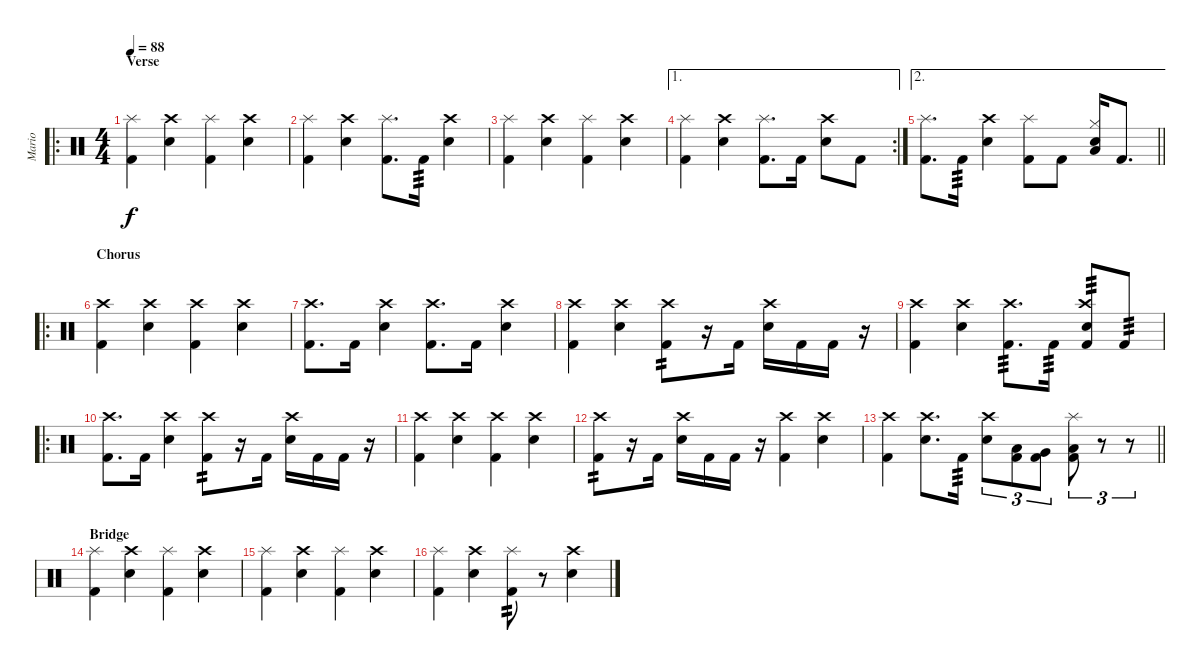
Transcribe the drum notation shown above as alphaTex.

\track ("Mario" "Mario") {instrument percussion}
\staff {score}
\articulation defaults
\ro
\ts (4 4)
\section ("" "Verse")
\tempo 88
\clef neutral
\ks c
("Splash (hit)" "Kick (hit) 2").4{dy f} ("Crash high (hit)" "Electric Snare (hit)").4 ("Splash (hit)" "Kick (hit) 2").4 ("Crash high (hit)" "Electric Snare (hit)").4 |
("Splash (hit)" "Kick (hit) 2").4 ("Crash high (hit)" "Electric Snare (hit)").4 ("Splash (hit)" "Kick (hit) 2").8{d} "Kick (hit) 2".16{tp 3} ("Crash high (hit)" "Electric Snare (hit)").4 |
("Splash (hit)" "Kick (hit) 2").4 ("Crash high (hit)" "Electric Snare (hit)").4 ("Splash (hit)" "Kick (hit) 2").4 ("Crash high (hit)" "Electric Snare (hit)").4 |
\ae 1
\rc 2
("Splash (hit)" "Kick (hit) 2").4 ("Crash high (hit)" "Electric Snare (hit)").4 ("Splash (hit)" "Kick (hit) 2").8{d} "Kick (hit) 2".16 ("Crash high (hit)" "Electric Snare (hit)").8 "Kick (hit) 2".8 |
\ae 2
\barLineRight lightlight
("Splash (hit)" "Kick (hit) 2").8{d} "Kick (hit) 2".16{tp 3} ("Crash high (hit)" "Electric Snare (hit)").4 ("Splash (hit)" "Kick (hit) 2").8 "Kick (hit) 2".8 ("Hi-Hat (closed)" "Low Floor Tom (hit)" "Electric Snare (hit)").16 "Kick (hit) 2".8{d} |
\ro
\section ("" "Chorus")
("Crash high (hit)" "Kick (hit) 2").4 ("Crash high (hit)" "Electric Snare (hit)").4 ("Crash high (hit)" "Kick (hit) 2").4 ("Crash high (hit)" "Electric Snare (hit)").4 |
("Crash high (hit)" "Kick (hit) 2").8{d} "Kick (hit) 2".16 ("Crash high (hit)" "Electric Snare (hit)").4 ("Crash high (hit)" "Kick (hit) 2").8{d} "Kick (hit) 2".16 ("Crash high (hit)" "Electric Snare (hit)").4 |
("Crash high (hit)" "Kick (hit) 2").4 ("Crash high (hit)" "Electric Snare (hit)").4 ("Crash high (hit)" "Kick (hit) 2").8{tp 2} r.16 "Kick (hit) 2".16 ("Crash high (hit)" "Electric Snare (hit)").16 "Kick (hit) 2".16 "Kick (hit) 2".16 r.16 |
("Crash high (hit)" "Kick (hit) 2").4 ("Crash high (hit)" "Electric Snare (hit)").4 ("Crash high (hit)" "Kick (hit) 2").8{d tp 3} "Kick (hit) 2".16{tp 3} ("Crash high (hit)" "Electric Snare (hit)" "Kick (hit) 2").8{tp 3} "Kick (hit) 2".8{tp 3} |
\ro
("Crash high (hit)" "Kick (hit) 2").8{d} "Kick (hit) 2".16 ("Crash high (hit)" "Electric Snare (hit)").4 ("Crash high (hit)" "Kick (hit) 2").8{tp 2} r.16 "Kick (hit) 2".16 ("Crash high (hit)" "Electric Snare (hit)").16 "Kick (hit) 2".16 "Kick (hit) 2".16 r.16 |
("Crash high (hit)" "Kick (hit) 2").4 ("Crash high (hit)" "Electric Snare (hit)").4 ("Crash high (hit)" "Kick (hit) 2").4 ("Crash high (hit)" "Electric Snare (hit)").4 |
("Crash high (hit)" "Kick (hit) 2").8{tp 2} r.16 "Kick (hit) 2".16 ("Crash high (hit)" "Electric Snare (hit)").16 "Kick (hit) 2".16 "Kick (hit) 2".16 r.16 ("Crash high (hit)" "Kick (hit) 2").4 ("Crash high (hit)" "Electric Snare (hit)").4 |
\barLineRight lightlight
("Crash high (hit)" "Kick (hit) 2").4 ("Crash high (hit)" "Electric Snare (hit)").8{d} "Kick (hit) 2".16{tp 3} ("Crash high (hit)" "Electric Snare (hit)").8{tu (3 2)} ("Low Tom (hit)" "Kick (hit) 2").8{tu (3 2)} ("Very Low Tom (hit)" "Kick (hit) 2").8{tu (3 2)} ("Splash (hit)" "Low Floor Tom (hit)" "Kick (hit) 2").8{tu (3 2)} r.8{tu (3 2)} r.8{tu (3 2)} |
\section ("" "Bridge")
("Splash (hit)" "Kick (hit) 2").4 ("Crash high (hit)" "Electric Snare (hit)").4 ("Splash (hit)" "Kick (hit) 2").4 ("Crash high (hit)" "Electric Snare (hit)").4 |
("Splash (hit)" "Kick (hit) 2").4 ("Crash high (hit)" "Electric Snare (hit)").4 ("Splash (hit)" "Kick (hit) 2").4 ("Crash high (hit)" "Electric Snare (hit)").4 |
("Splash (hit)" "Kick (hit) 2").4 ("Crash high (hit)" "Electric Snare (hit)").4 ("Splash (hit)" "Kick (hit) 2").8{tp 2} r.8 ("Crash high (hit)" "Electric Snare (hit)").4
